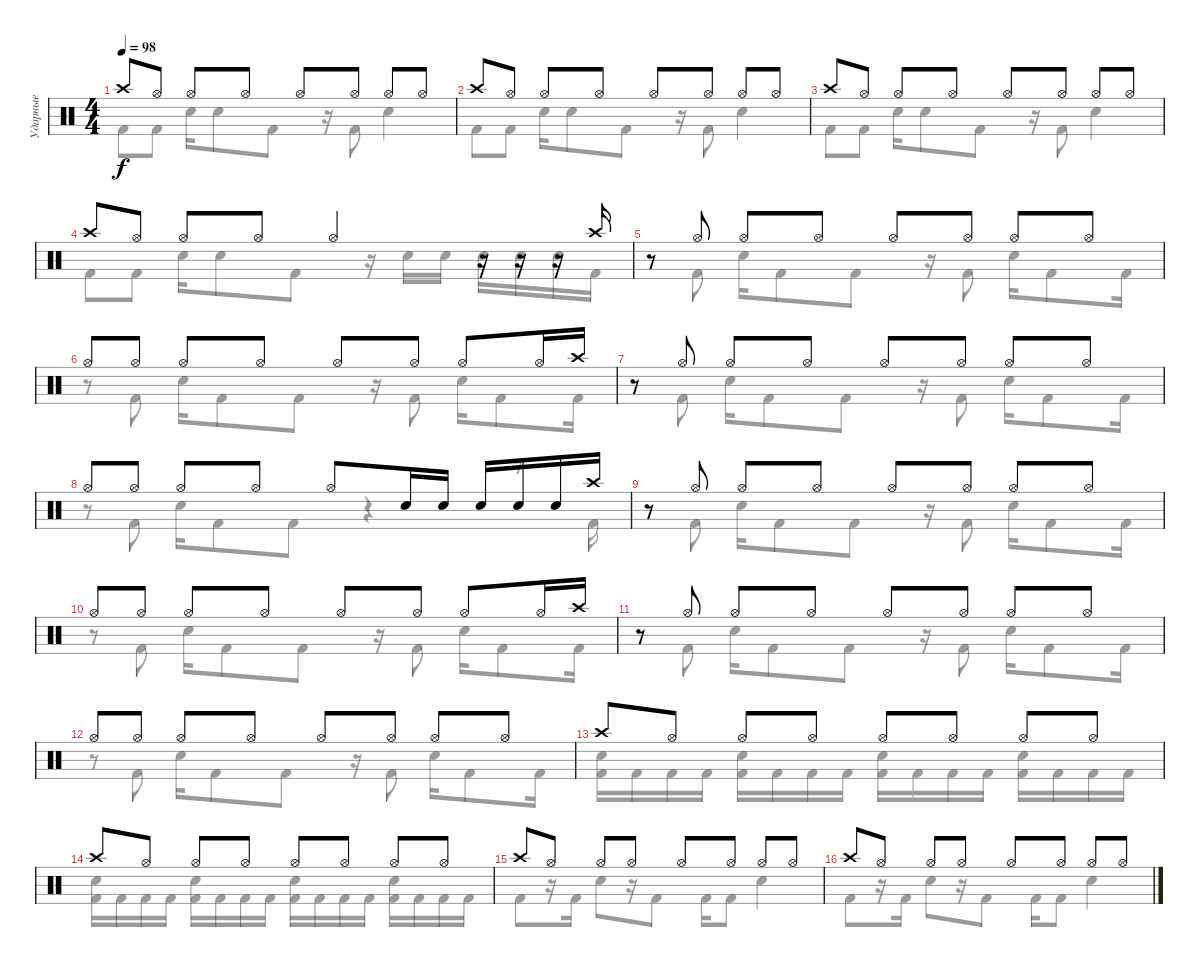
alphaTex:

\track ("Ударные" "Ударные") {instrument percussion}
\staff {score}
\articulation defaults
\voice
\ts (4 4)
\tempo 98
\clef neutral
\ks c "Crash high (hit)".8{dy f} "Hi-Hat (open)".8 "Hi-Hat (open)".8 "Hi-Hat (open)".8 "Hi-Hat (open)".8 "Hi-Hat (open)".8 "Hi-Hat (open)".8 "Hi-Hat (open)".8
|
"Crash high (hit)".8 "Hi-Hat (open)".8 "Hi-Hat (open)".8 "Hi-Hat (open)".8 "Hi-Hat (open)".8 "Hi-Hat (open)".8 "Hi-Hat (open)".8 "Hi-Hat (open)".8 |
"Crash high (hit)".8 "Hi-Hat (open)".8 "Hi-Hat (open)".8 "Hi-Hat (open)".8 "Hi-Hat (open)".8 "Hi-Hat (open)".8 "Hi-Hat (open)".8 "Hi-Hat (open)".8 |
"Crash high (hit)".8 "Hi-Hat (open)".8 "Hi-Hat (open)".8 "Hi-Hat (open)".8 "Hi-Hat (open)".4 r.16 r.16 r.16 "Crash high (hit)".16 |
r.8 "Hi-Hat (open)".8 "Hi-Hat (open)".8 "Hi-Hat (open)".8 "Hi-Hat (open)".8 "Hi-Hat (open)".8 "Hi-Hat (open)".8 "Hi-Hat (open)".8 |
"Hi-Hat (open)".8 "Hi-Hat (open)".8 "Hi-Hat (open)".8 "Hi-Hat (open)".8 "Hi-Hat (open)".8 "Hi-Hat (open)".8 "Hi-Hat (open)".8 "Hi-Hat (open)".16 "Crash high (hit)".16 |
r.8 "Hi-Hat (open)".8 "Hi-Hat (open)".8 "Hi-Hat (open)".8 "Hi-Hat (open)".8 "Hi-Hat (open)".8 "Hi-Hat (open)".8 "Hi-Hat (open)".8 |
"Hi-Hat (open)".8 "Hi-Hat (open)".8 "Hi-Hat (open)".8 "Hi-Hat (open)".8 "Hi-Hat (open)".8 "Snare (hit) 2".16 "Snare (hit) 2".16 "Snare (hit) 2".16 "Snare (hit) 2".16 "Snare (hit) 2".16 "Crash high (hit)".16 |
r.8 "Hi-Hat (open)".8 "Hi-Hat (open)".8 "Hi-Hat (open)".8 "Hi-Hat (open)".8 "Hi-Hat (open)".8 "Hi-Hat (open)".8 "Hi-Hat (open)".8 |
"Hi-Hat (open)".8 "Hi-Hat (open)".8 "Hi-Hat (open)".8 "Hi-Hat (open)".8 "Hi-Hat (open)".8 "Hi-Hat (open)".8 "Hi-Hat (open)".8 "Hi-Hat (open)".16 "Crash high (hit)".16 |
r.8 "Hi-Hat (open)".8 "Hi-Hat (open)".8 "Hi-Hat (open)".8 "Hi-Hat (open)".8 "Hi-Hat (open)".8 "Hi-Hat (open)".8 "Hi-Hat (open)".8 |
"Hi-Hat (open)".8 "Hi-Hat (open)".8 "Hi-Hat (open)".8 "Hi-Hat (open)".8 "Hi-Hat (open)".8 "Hi-Hat (open)".8 "Hi-Hat (open)".8 "Hi-Hat (open)".8 |
"Crash high (hit)".8 "Hi-Hat (open)".8 "Hi-Hat (open)".8 "Hi-Hat (open)".8 "Hi-Hat (open)".8 "Hi-Hat (open)".8 "Hi-Hat (open)".8 "Hi-Hat (open)".8 |
"Crash high (hit)".8 "Hi-Hat (open)".8 "Hi-Hat (open)".8 "Hi-Hat (open)".8 "Hi-Hat (open)".8 "Hi-Hat (open)".8 "Hi-Hat (open)".8 "Hi-Hat (open)".8 |
"Crash high (hit)".8 "Hi-Hat (open)".8 "Hi-Hat (open)".8 "Hi-Hat (open)".8 "Hi-Hat (open)".8 "Hi-Hat (open)".8 "Hi-Hat (open)".8 "Hi-Hat (open)".8 |
"Crash high (hit)".8 "Hi-Hat (open)".8 "Hi-Hat (open)".8 "Hi-Hat (open)".8 "Hi-Hat (open)".8 "Hi-Hat (open)".8 "Hi-Hat (open)".8 "Hi-Hat (open)".8
\voice
\clef neutral
\ottava regular
\simile none
\ks c "Kick (hit) 2".8{dy f} "Kick (hit) 2".8 "Snare (hit) 2".16 "Snare (hit) 2".8 "Kick (hit) 2".8
r.16 "Kick (hit) 2".8 "Snare (hit) 2".4 |
"Kick (hit) 2".8 "Kick (hit) 2".8 "Snare (hit) 2".16 "Snare (hit) 2".8 "Kick (hit) 2".8 r.16 "Kick (hit) 2".8 "Snare (hit) 2".4 |
"Kick (hit) 2".8 "Kick (hit) 2".8 "Snare (hit) 2".16 "Snare (hit) 2".8 "Kick (hit) 2".8 r.16 "Kick (hit) 2".8 "Snare (hit) 2".4 |
"Kick (hit) 2".8 "Kick (hit) 2".8 "Snare (hit) 2".16 "Snare (hit) 2".8 "Kick (hit) 2".8 r.16 "Snare (hit) 2".16 "Snare (hit) 2".16 "Snare (hit) 2".16 "Snare (hit) 2".16 "Snare (hit) 2".16 "Kick (hit) 2".16 |
r.8 "Kick (hit) 2".8 "Snare (hit) 2".16 "Kick (hit) 2".8 "Kick (hit) 2".8 r.16 "Kick (hit) 2".8 "Snare (hit) 2".16 "Kick (hit) 2".8 "Kick (hit) 2".16 |
r.8 "Kick (hit) 2".8 "Snare (hit) 2".16 "Kick (hit) 2".8 "Kick (hit) 2".8 r.16 "Kick (hit) 2".8 "Snare (hit) 2".16 "Kick (hit) 2".8 "Kick (hit) 2".16 |
r.8 "Kick (hit) 2".8 "Snare (hit) 2".16 "Kick (hit) 2".8 "Kick (hit) 2".8 r.16 "Kick (hit) 2".8 "Snare (hit) 2".16 "Kick (hit) 2".8 "Kick (hit) 2".16 |
r.8 "Kick (hit) 2".8 "Snare (hit) 2".16 "Kick (hit) 2".8 "Kick (hit) 2".8 r.4 r.8 "Kick (hit) 2".16 |
r.8 "Kick (hit) 2".8 "Snare (hit) 2".16 "Kick (hit) 2".8 "Kick (hit) 2".8 r.16 "Kick (hit) 2".8 "Snare (hit) 2".16 "Kick (hit) 2".8 "Kick (hit) 2".16 |
r.8 "Kick (hit) 2".8 "Snare (hit) 2".16 "Kick (hit) 2".8 "Kick (hit) 2".8 r.16 "Kick (hit) 2".8 "Snare (hit) 2".16 "Kick (hit) 2".8 "Kick (hit) 2".16 |
r.8 "Kick (hit) 2".8 "Snare (hit) 2".16 "Kick (hit) 2".8 "Kick (hit) 2".8 r.16 "Kick (hit) 2".8 "Snare (hit) 2".16 "Kick (hit) 2".8 "Kick (hit) 2".16 |
r.8 "Kick (hit) 2".8 "Snare (hit) 2".16 "Kick (hit) 2".8 "Kick (hit) 2".8 r.16 "Kick (hit) 2".8 "Snare (hit) 2".16 "Kick (hit) 2".8 "Kick (hit) 2".16 |
("Snare (hit) 2" "Kick (hit) 2").16 "Kick (hit) 2".16 "Kick (hit) 2".16 "Kick (hit) 2".16 ("Snare (hit) 2" "Kick (hit) 2").16 "Kick (hit) 2".16 "Kick (hit) 2".16 "Kick (hit) 2".16 ("Snare (hit) 2" "Kick (hit) 2").16 "Kick (hit) 2".16 "Kick (hit) 2".16 "Kick (hit) 2".16 ("Snare (hit) 2" "Kick (hit) 2").16 "Kick (hit) 2".16 "Kick (hit) 2".16 "Kick (hit) 2".16 |
("Snare (hit) 2" "Kick (hit) 2").16 "Kick (hit) 2".16 "Kick (hit) 2".16 "Kick (hit) 2".16 ("Snare (hit) 2" "Kick (hit) 2").16 "Kick (hit) 2".16 "Kick (hit) 2".16 "Kick (hit) 2".16 ("Snare (hit) 2" "Kick (hit) 2").16 "Kick (hit) 2".16 "Kick (hit) 2".16 "Kick (hit) 2".16 ("Snare (hit) 2" "Kick (hit) 2").16 "Kick (hit) 2".16 "Kick (hit) 2".16 "Kick (hit) 2".16 |
"Kick (hit) 2".8 r.16 "Kick (hit) 2".16 "Snare (hit) 2".8 r.16 "Kick (hit) 2".8 "Kick (hit) 2".16 "Kick (hit) 2".8 "Snare (hit) 2".4 |
"Kick (hit) 2".8 r.16 "Kick (hit) 2".16 "Snare (hit) 2".8 r.16 "Kick (hit) 2".8 "Kick (hit) 2".16 "Kick (hit) 2".8 "Snare (hit) 2".4
